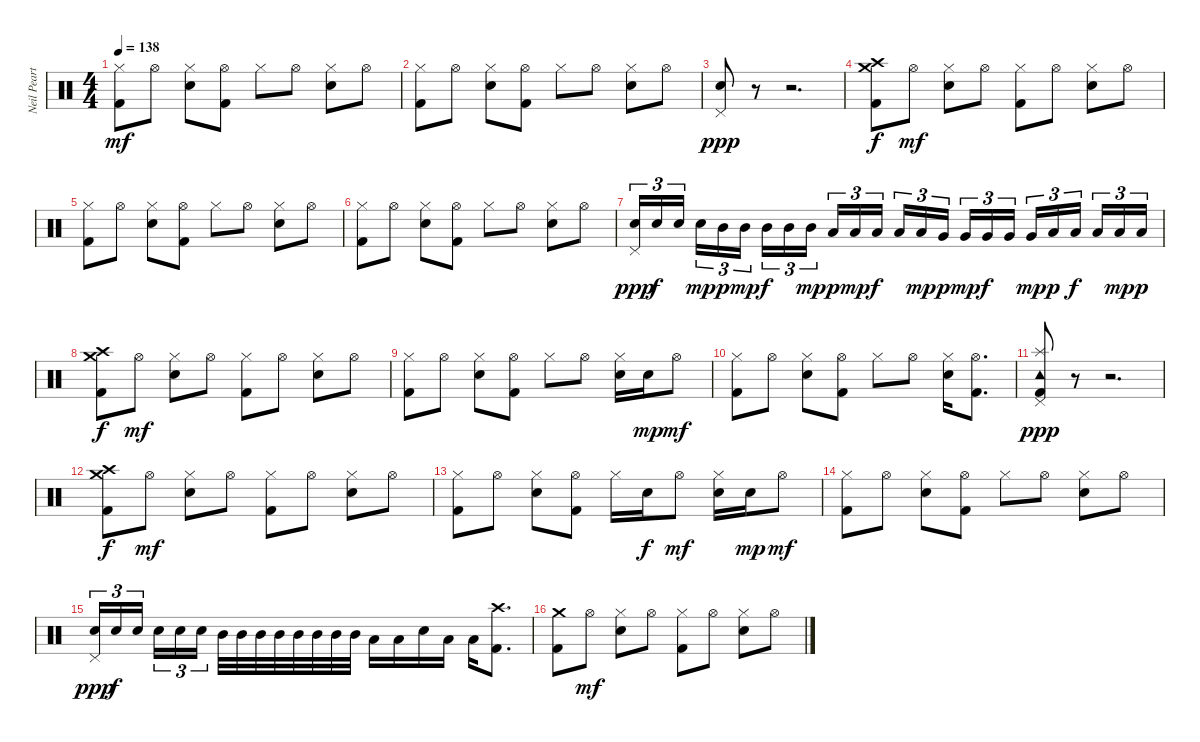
\track ("Neil Peart, Percusión" "Neil Peart") {instrument percussion}
\staff {score}
\articulation defaults
\ts (4 4)
\tempo 138
\clef neutral
\ks c
("Hi-Hat (closed)" "Kick (hit) 2").8{dy mf} "Hi-Hat (open)".8 ("Hi-Hat (closed)" "Electric Snare (hit)").8 ("Hi-Hat (open)" "Kick (hit) 2").8 "Hi-Hat (closed)".8 "Hi-Hat (open)".8 ("Hi-Hat (closed)" "Electric Snare (hit)").8 "Hi-Hat (open)".8 |
("Hi-Hat (closed)" "Kick (hit) 2").8 "Hi-Hat (open)".8 ("Hi-Hat (closed)" "Electric Snare (hit)").8 ("Hi-Hat (open)" "Kick (hit) 2").8 "Hi-Hat (closed)".8 "Hi-Hat (open)".8 ("Hi-Hat (closed)" "Electric Snare (hit)").8 "Hi-Hat (open)".8 |
("Pedal Hi-Hat (hit)" "Electric Snare (hit)").8{dy ppp} r.8 r.2{d} |
("Crash medium (hit)" "Crash high (hit)" "Kick (hit) 2").8{dy f} "Hi-Hat (open)".8{dy mf} ("Hi-Hat (closed)" "Electric Snare (hit)").8 "Hi-Hat (open)".8 ("Hi-Hat (closed)" "Kick (hit) 2").8 "Hi-Hat (open)".8 ("Hi-Hat (closed)" "Electric Snare (hit)").8 "Hi-Hat (open)".8 |
("Hi-Hat (closed)" "Kick (hit) 2").8 "Hi-Hat (open)".8 ("Hi-Hat (closed)" "Electric Snare (hit)").8 ("Hi-Hat (open)" "Kick (hit) 2").8 "Hi-Hat (closed)".8 "Hi-Hat (open)".8 ("Hi-Hat (closed)" "Electric Snare (hit)").8 "Hi-Hat (open)".8 |
("Hi-Hat (closed)" "Kick (hit) 2").8 "Hi-Hat (open)".8 ("Hi-Hat (closed)" "Electric Snare (hit)").8 ("Hi-Hat (open)" "Kick (hit) 2").8 "Hi-Hat (closed)".8 "Hi-Hat (open)".8 ("Hi-Hat (closed)" "Electric Snare (hit)").8 "Hi-Hat (open)".8 |
("Pedal Hi-Hat (hit)" "Electric Snare (hit)").16{tu (3 2) dy ppp} "Electric Snare (hit)".16{tu (3 2) dy f} "Electric Snare (hit)".16{tu (3 2)} "Electric Snare (hit)".16{tu (3 2) dy mp} "Mid Tom (hit)".16{tu (3 2) dy p} "Mid Tom (hit)".16{tu (3 2) dy mp} "Mid Tom (hit)".16{tu (3 2) dy f} "Mid Tom (hit)".16{tu (3 2)} "Mid Tom (hit)".16{tu (3 2) dy mp} "Low Tom (hit)".16{tu (3 2) dy p} "Low Tom (hit)".16{tu (3 2) dy mp} "Low Tom (hit)".16{tu (3 2) dy f} "Low Tom (hit)".16{tu (3 2)} "Low Tom (hit)".16{tu (3 2) dy mp} "Very Low Tom (hit)".16{tu (3 2) dy p} "Very Low Tom (hit)".16{tu (3 2) dy mp} "Very Low Tom (hit)".16{tu (3 2) dy f} "Very Low Tom (hit)".16{tu (3 2)} "Very Low Tom (hit)".16{tu (3 2) dy mp} "Low Floor Tom (hit)".16{tu (3 2) dy p} "Low Floor Tom (hit)".16{tu (3 2) dy f} "Low Floor Tom (hit)".16{tu (3 2)} "Low Floor Tom (hit)".16{tu (3 2) dy mp} "Low Floor Tom (hit)".16{tu (3 2) dy p} |
("Crash medium (hit)" "Crash high (hit)" "Kick (hit) 2").8{dy f} "Hi-Hat (open)".8{dy mf} ("Hi-Hat (closed)" "Electric Snare (hit)").8 "Hi-Hat (open)".8 ("Hi-Hat (closed)" "Kick (hit) 2").8 "Hi-Hat (open)".8 ("Hi-Hat (closed)" "Electric Snare (hit)").8 "Hi-Hat (open)".8 |
("Hi-Hat (closed)" "Kick (hit) 2").8 "Hi-Hat (open)".8 ("Hi-Hat (closed)" "Electric Snare (hit)").8 ("Hi-Hat (open)" "Kick (hit) 2").8 "Hi-Hat (closed)".8 "Hi-Hat (open)".8 ("Hi-Hat (closed)" "Electric Snare (hit)").16 "Electric Snare (hit)".16{dy mp} "Hi-Hat (open)".8{dy mf} |
("Hi-Hat (closed)" "Kick (hit) 2").8 "Hi-Hat (open)".8 ("Hi-Hat (closed)" "Electric Snare (hit)").8 ("Hi-Hat (open)" "Kick (hit) 2").8 "Hi-Hat (closed)".8 "Hi-Hat (open)".8 ("Hi-Hat (closed)" "Electric Snare (hit)").16 ("Hi-Hat (open)" "Kick (hit) 2").8{d} |
("Splash (hit)" "Tambourine (hit)" "Pedal Hi-Hat (hit)" "Kick (hit) 2").8{dy ppp} r.8 r.2{d} |
("Crash medium (hit)" "Crash high (hit)" "Kick (hit) 2").8{dy f} "Hi-Hat (open)".8{dy mf} ("Hi-Hat (closed)" "Electric Snare (hit)").8 "Hi-Hat (open)".8 ("Hi-Hat (closed)" "Kick (hit) 2").8 "Hi-Hat (open)".8 ("Hi-Hat (closed)" "Electric Snare (hit)").8 "Hi-Hat (open)".8 |
("Hi-Hat (closed)" "Kick (hit) 2").8 "Hi-Hat (open)".8 ("Hi-Hat (closed)" "Electric Snare (hit)").8 ("Hi-Hat (open)" "Kick (hit) 2").8 "Hi-Hat (closed)".16 "Electric Snare (hit)".16{dy f} "Hi-Hat (open)".8{dy mf} ("Hi-Hat (closed)" "Electric Snare (hit)").16 "Electric Snare (hit)".16{dy mp} "Hi-Hat (open)".8{dy mf} |
("Hi-Hat (closed)" "Kick (hit) 2").8 "Hi-Hat (open)".8 ("Hi-Hat (closed)" "Electric Snare (hit)").8 ("Hi-Hat (open)" "Kick (hit) 2").8 "Hi-Hat (closed)".8 "Hi-Hat (open)".8 ("Hi-Hat (closed)" "Electric Snare (hit)").8 "Hi-Hat (open)".8 |
("Pedal Hi-Hat (hit)" "Electric Snare (hit)").16{tu (3 2) dy ppp} "Electric Snare (hit)".16{tu (3 2) dy f} "Electric Snare (hit)".16{tu (3 2)} "Electric Snare (hit)".16{tu (3 2)} "Electric Snare (hit)".16{tu (3 2)} "Electric Snare (hit)".16{tu (3 2)} "Mid Tom (hit)".32 "Mid Tom (hit)".32 "Mid Tom (hit)".32 "Mid Tom (hit)".32 "Mid Tom (hit)".32 "Mid Tom (hit)".32 "Mid Tom (hit)".32 "Mid Tom (hit)".32 "Low Tom (hit)".16 "Low Tom (hit)".16 "Electric Snare (hit)".16 "Low Tom (hit)".16 "Low Tom (hit)".16 ("Crash high (hit)" "Kick (hit) 2").8{d} |
("Crash medium (hit)" "Kick (hit) 2").8 "Hi-Hat (open)".8{dy mf} ("Hi-Hat (closed)" "Electric Snare (hit)").8 "Hi-Hat (open)".8 ("Hi-Hat (closed)" "Kick (hit) 2").8 "Hi-Hat (open)".8 ("Hi-Hat (closed)" "Electric Snare (hit)").8 "Hi-Hat (open)".8
